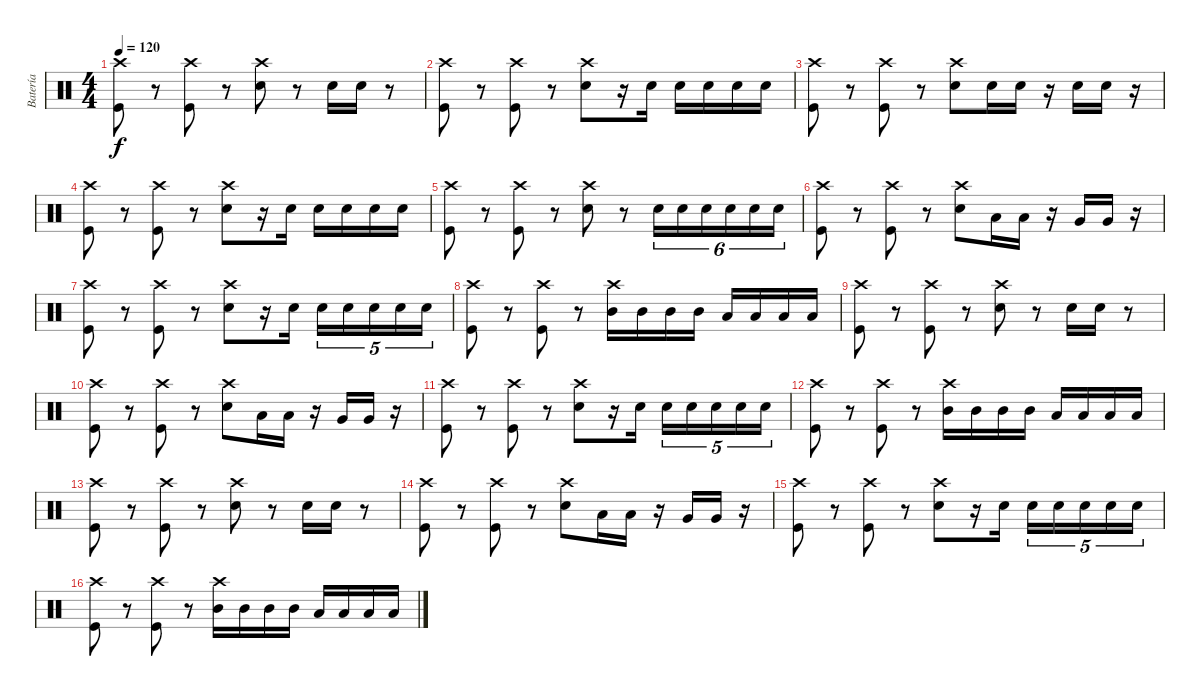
\track ("Batería" "Batería") {instrument percussion}
\staff {score}
\articulation defaults
\ts (4 4)
\tempo 120
\clef neutral
\ks c
("Crash high (hit)" "Kick (hit)").8{dy f} r.8 ("Crash high (hit)" "Kick (hit)").8 r.8 ("Crash high (hit)" "Electric Snare (hit)").8 r.8 "Electric Snare (hit)".16 "Electric Snare (hit)".16 r.8 |
("Crash high (hit)" "Kick (hit)").8 r.8 ("Crash high (hit)" "Kick (hit)").8 r.8 ("Crash high (hit)" "Electric Snare (hit)").8 r.16 "Electric Snare (hit)".16 "Electric Snare (hit)".16 "Electric Snare (hit)".16 "Electric Snare (hit)".16 "Electric Snare (hit)".16 |
("Crash high (hit)" "Kick (hit)").8 r.8 ("Crash high (hit)" "Kick (hit)").8 r.8 ("Crash high (hit)" "Electric Snare (hit)").8 "Electric Snare (hit)".16 "Electric Snare (hit)".16 r.16 "Electric Snare (hit)".16 "Electric Snare (hit)".16 r.16 |
("Crash high (hit)" "Kick (hit)").8 r.8 ("Crash high (hit)" "Kick (hit)").8 r.8 ("Crash high (hit)" "Electric Snare (hit)").8 r.16 "Electric Snare (hit)".16 "Electric Snare (hit)".16 "Electric Snare (hit)".16 "Electric Snare (hit)".16 "Electric Snare (hit)".16 |
("Crash high (hit)" "Kick (hit)").8 r.8 ("Crash high (hit)" "Kick (hit)").8 r.8 ("Crash high (hit)" "Electric Snare (hit)").8 r.8 "Electric Snare (hit)".16{tu (6 4)} "Electric Snare (hit)".16{tu (6 4)} "Electric Snare (hit)".16{tu (6 4)} "Electric Snare (hit)".16{tu (6 4)} "Electric Snare (hit)".16{tu (6 4)} "Electric Snare (hit)".16{tu (6 4)} |
("Crash high (hit)" "Kick (hit)").8 r.8 ("Crash high (hit)" "Kick (hit)").8 r.8 ("Crash high (hit)" "Snare (hit) 2").8 "Low Tom (hit)".16 "Low Tom (hit)".16 r.16 "Very Low Tom (hit)".16 "Very Low Tom (hit)".16 r.16 |
("Crash high (hit)" "Kick (hit)").8 r.8 ("Crash high (hit)" "Kick (hit)").8 r.8 ("Crash high (hit)" "Electric Snare (hit)").8 r.16 "Electric Snare (hit)".16 "Electric Snare (hit)".16{tu (5 4)} "Electric Snare (hit)".16{tu (5 4)} "Electric Snare (hit)".16{tu (5 4)} "Electric Snare (hit)".16{tu (5 4)} "Electric Snare (hit)".16{tu (5 4)} |
("Crash high (hit)" "Kick (hit)").8 r.8 ("Crash high (hit)" "Kick (hit)").8 r.8 ("Crash high (hit)" "Mid Tom (hit)").16 "Mid Tom (hit)".16 "Mid Tom (hit)".16 "Mid Tom (hit)".16 "Low Tom (hit)".16 "Low Tom (hit)".16 "Low Tom (hit)".16 "Low Tom (hit)".16 |
("Crash high (hit)" "Kick (hit)").8 r.8 ("Crash high (hit)" "Kick (hit)").8 r.8 ("Crash high (hit)" "Electric Snare (hit)").8 r.8 "Electric Snare (hit)".16 "Electric Snare (hit)".16 r.8 |
("Crash high (hit)" "Kick (hit)").8 r.8 ("Crash high (hit)" "Kick (hit)").8 r.8 ("Crash high (hit)" "Snare (hit) 2").8 "Low Tom (hit)".16 "Low Tom (hit)".16 r.16 "Very Low Tom (hit)".16 "Very Low Tom (hit)".16 r.16 |
("Crash high (hit)" "Kick (hit)").8 r.8 ("Crash high (hit)" "Kick (hit)").8 r.8 ("Crash high (hit)" "Electric Snare (hit)").8 r.16 "Electric Snare (hit)".16 "Electric Snare (hit)".16{tu (5 4)} "Electric Snare (hit)".16{tu (5 4)} "Electric Snare (hit)".16{tu (5 4)} "Electric Snare (hit)".16{tu (5 4)} "Electric Snare (hit)".16{tu (5 4)} |
("Crash high (hit)" "Kick (hit)").8 r.8 ("Crash high (hit)" "Kick (hit)").8 r.8 ("Crash high (hit)" "Mid Tom (hit)").16 "Mid Tom (hit)".16 "Mid Tom (hit)".16 "Mid Tom (hit)".16 "Low Tom (hit)".16 "Low Tom (hit)".16 "Low Tom (hit)".16 "Low Tom (hit)".16 |
("Crash high (hit)" "Kick (hit)").8 r.8 ("Crash high (hit)" "Kick (hit)").8 r.8 ("Crash high (hit)" "Electric Snare (hit)").8 r.8 "Electric Snare (hit)".16 "Electric Snare (hit)".16 r.8 |
("Crash high (hit)" "Kick (hit)").8 r.8 ("Crash high (hit)" "Kick (hit)").8 r.8 ("Crash high (hit)" "Snare (hit) 2").8 "Low Tom (hit)".16 "Low Tom (hit)".16 r.16 "Very Low Tom (hit)".16 "Very Low Tom (hit)".16 r.16 |
("Crash high (hit)" "Kick (hit)").8 r.8 ("Crash high (hit)" "Kick (hit)").8 r.8 ("Crash high (hit)" "Electric Snare (hit)").8 r.16 "Electric Snare (hit)".16 "Electric Snare (hit)".16{tu (5 4)} "Electric Snare (hit)".16{tu (5 4)} "Electric Snare (hit)".16{tu (5 4)} "Electric Snare (hit)".16{tu (5 4)} "Electric Snare (hit)".16{tu (5 4)} |
("Crash high (hit)" "Kick (hit)").8 r.8 ("Crash high (hit)" "Kick (hit)").8 r.8 ("Crash high (hit)" "Mid Tom (hit)").16 "Mid Tom (hit)".16 "Mid Tom (hit)".16 "Mid Tom (hit)".16 "Low Tom (hit)".16 "Low Tom (hit)".16 "Low Tom (hit)".16 "Low Tom (hit)".16
